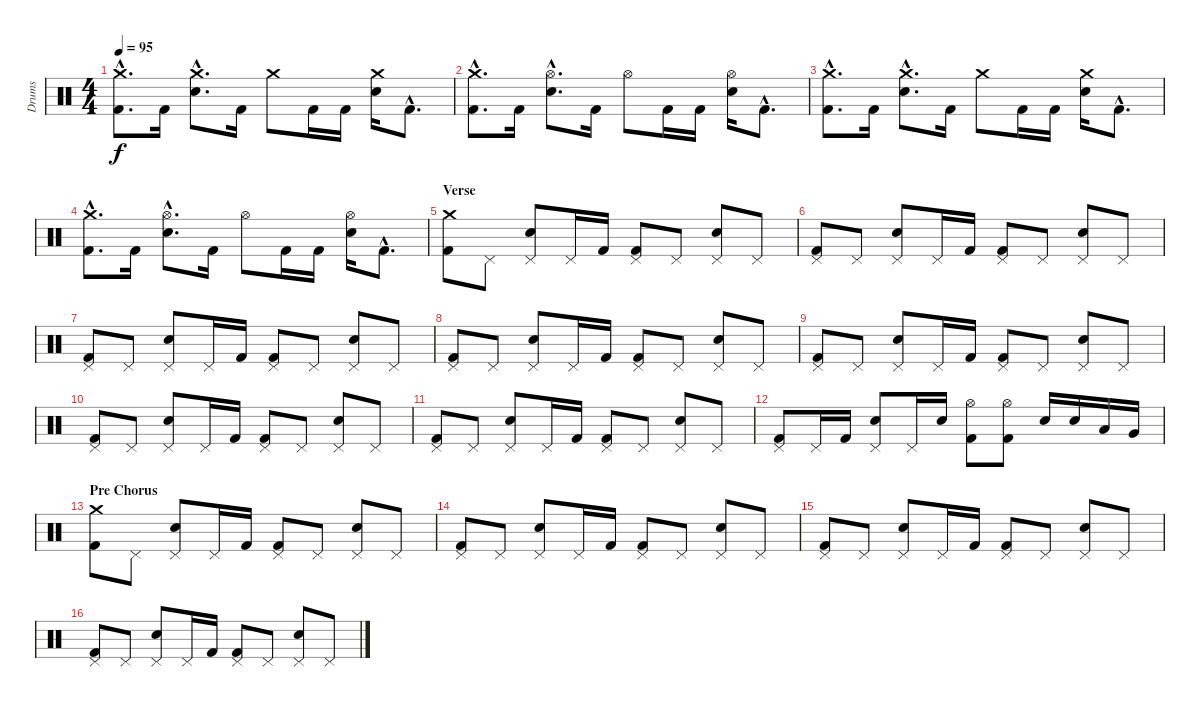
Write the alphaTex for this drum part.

\track ("Drums" "Drums") {instrument percussion}
\staff {score}
\articulation defaults
\ts (4 4)
\tempo 95
\clef neutral
\ks c
("Crash medium (hit)"{hac} "Kick (hit) 2"{hac}).8{d dy f} "Kick (hit) 2".16 ("Crash medium (hit)"{hac} "Electric Snare (hit)"{hac}).8{d} "Kick (hit) 2".16 "Crash medium (hit)".8 "Kick (hit) 2".16 "Kick (hit) 2".16 ("Crash medium (hit)" "Electric Snare (hit)").16 "Kick (hit) 2"{hac}.8{d} |
("Crash medium (hit)"{hac} "Kick (hit) 2"{hac}).8{d} "Kick (hit) 2".16 ("Hi-Hat (open)"{hac} "Electric Snare (hit)"{hac}).8{d} "Kick (hit) 2".16 "Hi-Hat (open)".8 "Kick (hit) 2".16 "Kick (hit) 2".16 ("Hi-Hat (open)" "Electric Snare (hit)").16 "Kick (hit) 2"{hac}.8{d} |
("Crash medium (hit)"{hac} "Kick (hit) 2"{hac}).8{d} "Kick (hit) 2".16 ("Crash medium (hit)"{hac} "Electric Snare (hit)"{hac}).8{d} "Kick (hit) 2".16 "Crash medium (hit)".8 "Kick (hit) 2".16 "Kick (hit) 2".16 ("Crash medium (hit)" "Electric Snare (hit)").16 "Kick (hit) 2"{hac}.8{d} |
("Crash medium (hit)"{hac} "Kick (hit) 2"{hac}).8{d} "Kick (hit) 2".16 ("Hi-Hat (open)"{hac} "Electric Snare (hit)"{hac}).8{d} "Kick (hit) 2".16 "Hi-Hat (open)".8 "Kick (hit) 2".16 "Kick (hit) 2".16 ("Hi-Hat (open)" "Electric Snare (hit)").16 "Kick (hit) 2"{hac}.8{d} |
\section ("" "Verse")
("Crash medium (hit)" "Kick (hit) 2").8 "Pedal Hi-Hat (hit)".8 ("Pedal Hi-Hat (hit)" "Electric Snare (hit)").8 "Pedal Hi-Hat (hit)".16 "Kick (hit) 2".16 ("Pedal Hi-Hat (hit)" "Kick (hit) 2").8 "Pedal Hi-Hat (hit)".8 ("Pedal Hi-Hat (hit)" "Electric Snare (hit)").8 "Pedal Hi-Hat (hit)".8 |
("Pedal Hi-Hat (hit)" "Kick (hit) 2").8 "Pedal Hi-Hat (hit)".8 ("Pedal Hi-Hat (hit)" "Electric Snare (hit)").8 "Pedal Hi-Hat (hit)".16 "Kick (hit) 2".16 ("Pedal Hi-Hat (hit)" "Kick (hit) 2").8 "Pedal Hi-Hat (hit)".8 ("Pedal Hi-Hat (hit)" "Electric Snare (hit)").8 "Pedal Hi-Hat (hit)".8 |
("Pedal Hi-Hat (hit)" "Kick (hit) 2").8 "Pedal Hi-Hat (hit)".8 ("Pedal Hi-Hat (hit)" "Electric Snare (hit)").8 "Pedal Hi-Hat (hit)".16 "Kick (hit) 2".16 ("Pedal Hi-Hat (hit)" "Kick (hit) 2").8 "Pedal Hi-Hat (hit)".8 ("Pedal Hi-Hat (hit)" "Electric Snare (hit)").8 "Pedal Hi-Hat (hit)".8 |
("Pedal Hi-Hat (hit)" "Kick (hit) 2").8 "Pedal Hi-Hat (hit)".8 ("Pedal Hi-Hat (hit)" "Electric Snare (hit)").8 "Pedal Hi-Hat (hit)".16 "Kick (hit) 2".16 ("Pedal Hi-Hat (hit)" "Kick (hit) 2").8 "Pedal Hi-Hat (hit)".8 ("Pedal Hi-Hat (hit)" "Electric Snare (hit)").8 "Pedal Hi-Hat (hit)".8 |
("Pedal Hi-Hat (hit)" "Kick (hit) 2").8 "Pedal Hi-Hat (hit)".8 ("Pedal Hi-Hat (hit)" "Electric Snare (hit)").8 "Pedal Hi-Hat (hit)".16 "Kick (hit) 2".16 ("Pedal Hi-Hat (hit)" "Kick (hit) 2").8 "Pedal Hi-Hat (hit)".8 ("Pedal Hi-Hat (hit)" "Electric Snare (hit)").8 "Pedal Hi-Hat (hit)".8 |
("Pedal Hi-Hat (hit)" "Kick (hit) 2").8 "Pedal Hi-Hat (hit)".8 ("Pedal Hi-Hat (hit)" "Electric Snare (hit)").8 "Pedal Hi-Hat (hit)".16 "Kick (hit) 2".16 ("Pedal Hi-Hat (hit)" "Kick (hit) 2").8 "Pedal Hi-Hat (hit)".8 ("Pedal Hi-Hat (hit)" "Electric Snare (hit)").8 "Pedal Hi-Hat (hit)".8 |
("Pedal Hi-Hat (hit)" "Kick (hit) 2").8 "Pedal Hi-Hat (hit)".8 ("Pedal Hi-Hat (hit)" "Electric Snare (hit)").8 "Pedal Hi-Hat (hit)".16 "Kick (hit) 2".16 ("Pedal Hi-Hat (hit)" "Kick (hit) 2").8 "Pedal Hi-Hat (hit)".8 ("Pedal Hi-Hat (hit)" "Electric Snare (hit)").8 "Pedal Hi-Hat (hit)".8 |
("Pedal Hi-Hat (hit)" "Kick (hit) 2").8 "Pedal Hi-Hat (hit)".16 "Kick (hit) 2".16 ("Pedal Hi-Hat (hit)" "Electric Snare (hit)").8 "Pedal Hi-Hat (hit)".16 "Electric Snare (hit)".16 ("Hi-Hat (open)" "Kick (hit) 2").8 ("Hi-Hat (open)" "Kick (hit) 2").8 "Electric Snare (hit)".16 "Electric Snare (hit)".16 "Low Tom (hit)".16 "Very Low Tom (hit)".16 |
\section ("" "Pre Chorus")
("Crash medium (hit)" "Kick (hit) 2").8 "Pedal Hi-Hat (hit)".8 ("Pedal Hi-Hat (hit)" "Electric Snare (hit)").8 "Pedal Hi-Hat (hit)".16 "Kick (hit) 2".16 ("Pedal Hi-Hat (hit)" "Kick (hit) 2").8 "Pedal Hi-Hat (hit)".8 ("Pedal Hi-Hat (hit)" "Electric Snare (hit)").8 "Pedal Hi-Hat (hit)".8 |
("Pedal Hi-Hat (hit)" "Kick (hit) 2").8 "Pedal Hi-Hat (hit)".8 ("Pedal Hi-Hat (hit)" "Electric Snare (hit)").8 "Pedal Hi-Hat (hit)".16 "Kick (hit) 2".16 ("Pedal Hi-Hat (hit)" "Kick (hit) 2").8 "Pedal Hi-Hat (hit)".8 ("Pedal Hi-Hat (hit)" "Electric Snare (hit)").8 "Pedal Hi-Hat (hit)".8 |
("Pedal Hi-Hat (hit)" "Kick (hit) 2").8 "Pedal Hi-Hat (hit)".8 ("Pedal Hi-Hat (hit)" "Electric Snare (hit)").8 "Pedal Hi-Hat (hit)".16 "Kick (hit) 2".16 ("Pedal Hi-Hat (hit)" "Kick (hit) 2").8 "Pedal Hi-Hat (hit)".8 ("Pedal Hi-Hat (hit)" "Electric Snare (hit)").8 "Pedal Hi-Hat (hit)".8 |
("Pedal Hi-Hat (hit)" "Kick (hit) 2").8 "Pedal Hi-Hat (hit)".8 ("Pedal Hi-Hat (hit)" "Electric Snare (hit)").8 "Pedal Hi-Hat (hit)".16 "Kick (hit) 2".16 ("Pedal Hi-Hat (hit)" "Kick (hit) 2").8 "Pedal Hi-Hat (hit)".8 ("Pedal Hi-Hat (hit)" "Electric Snare (hit)").8 "Pedal Hi-Hat (hit)".8
